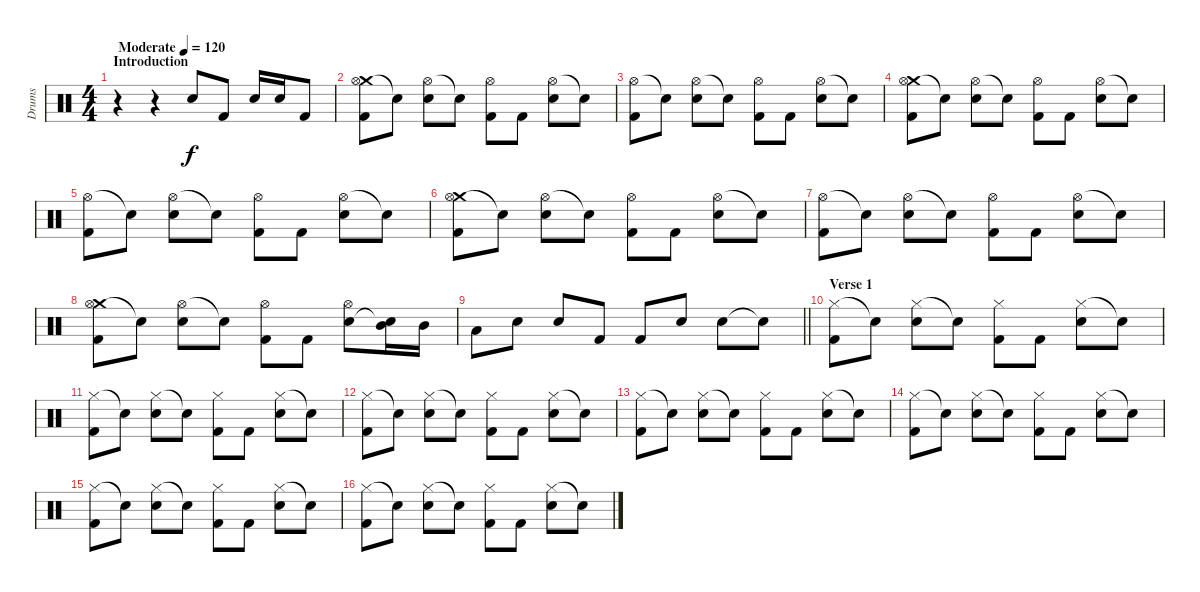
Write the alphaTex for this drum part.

\track ("Drums" "Drums") {instrument percussion}
\staff {score}
\articulation defaults
\ts (4 4)
\section ("" "Introduction")
\tempo (120 "Moderate")
\clef neutral
\ks c
r.4{dy f} r.4 "Electric Snare (hit)".8 "Kick (hit) 2".8 "Electric Snare (hit)".16 "Electric Snare (hit)".16 "Kick (hit) 2".8 |
("Crash medium (hit)" "Hi-Hat (open)" "Kick (hit) 2").8 "Snare (hit)"{t}.8 ("Hi-Hat (open)" "Electric Snare (hit)").8 "Snare (hit)"{t}.8 ("Hi-Hat (open)" "Kick (hit) 2").8 "Kick (hit) 2".8 ("Hi-Hat (open)" "Electric Snare (hit)").8 "Snare (hit)"{t}.8 |
("Hi-Hat (open)" "Kick (hit) 2").8 "Snare (hit)"{t}.8 ("Hi-Hat (open)" "Electric Snare (hit)").8 "Snare (hit)"{t}.8 ("Hi-Hat (open)" "Kick (hit) 2").8 "Kick (hit) 2".8 ("Hi-Hat (open)" "Electric Snare (hit)").8 "Snare (hit)"{t}.8 |
("Crash medium (hit)" "Hi-Hat (open)" "Kick (hit) 2").8 "Snare (hit)"{t}.8 ("Hi-Hat (open)" "Electric Snare (hit)").8 "Snare (hit)"{t}.8 ("Hi-Hat (open)" "Kick (hit) 2").8 "Kick (hit) 2".8 ("Hi-Hat (open)" "Electric Snare (hit)").8 "Snare (hit)"{t}.8 |
("Hi-Hat (open)" "Kick (hit) 2").8 "Snare (hit)"{t}.8 ("Hi-Hat (open)" "Electric Snare (hit)").8 "Snare (hit)"{t}.8 ("Hi-Hat (open)" "Kick (hit) 2").8 "Kick (hit) 2".8 ("Hi-Hat (open)" "Electric Snare (hit)").8 "Snare (hit)"{t}.8 |
("Crash medium (hit)" "Hi-Hat (open)" "Kick (hit) 2").8 "Snare (hit)"{t}.8 ("Hi-Hat (open)" "Electric Snare (hit)").8 "Snare (hit)"{t}.8 ("Hi-Hat (open)" "Kick (hit) 2").8 "Kick (hit) 2".8 ("Hi-Hat (open)" "Electric Snare (hit)").8 "Snare (hit)"{t}.8 |
("Hi-Hat (open)" "Kick (hit) 2").8 "Snare (hit)"{t}.8 ("Hi-Hat (open)" "Electric Snare (hit)").8 "Snare (hit)"{t}.8 ("Hi-Hat (open)" "Kick (hit) 2").8 "Kick (hit) 2".8 ("Hi-Hat (open)" "Electric Snare (hit)").8 "Snare (hit)"{t}.8 |
("Crash medium (hit)" "Hi-Hat (open)" "Kick (hit) 2").8 "Snare (hit)"{t}.8 ("Hi-Hat (open)" "Electric Snare (hit)").8 "Snare (hit)"{t}.8 ("Hi-Hat (open)" "Kick (hit) 2").8 "Kick (hit) 2".8 ("Hi-Hat (open)" "Electric Snare (hit)").8 ("Mid Tom (hit)" "Snare (hit)"{t}).16 "Mid Tom (hit)".16 |
\barLineRight lightlight "Low Tom (hit)".8 "Electric Snare (hit)".8 "Electric Snare (hit)".8 "Kick (hit) 2".8 "Kick (hit) 2".8 "Electric Snare (hit)".8 "Electric Snare (hit)".8 "Snare (hit)"{t}.8
|
\section ("" "Verse 1")
("Hi-Hat (closed)" "Kick (hit) 2").8 "Snare (hit)"{t}.8 ("Hi-Hat (closed)" "Electric Snare (hit)").8 "Snare (hit)"{t}.8 ("Hi-Hat (closed)" "Kick (hit) 2").8 "Kick (hit) 2".8 ("Hi-Hat (closed)" "Electric Snare (hit)").8 "Snare (hit)"{t}.8 |
("Hi-Hat (closed)" "Kick (hit) 2").8 "Snare (hit)"{t}.8 ("Hi-Hat (closed)" "Electric Snare (hit)").8 "Snare (hit)"{t}.8 ("Hi-Hat (closed)" "Kick (hit) 2").8 "Kick (hit) 2".8 ("Hi-Hat (closed)" "Electric Snare (hit)").8 "Snare (hit)"{t}.8 |
("Hi-Hat (closed)" "Kick (hit) 2").8 "Snare (hit)"{t}.8 ("Hi-Hat (closed)" "Electric Snare (hit)").8 "Snare (hit)"{t}.8 ("Hi-Hat (closed)" "Kick (hit) 2").8 "Kick (hit) 2".8 ("Hi-Hat (closed)" "Electric Snare (hit)").8 "Snare (hit)"{t}.8 |
("Hi-Hat (closed)" "Kick (hit) 2").8 "Snare (hit)"{t}.8 ("Hi-Hat (closed)" "Electric Snare (hit)").8 "Snare (hit)"{t}.8 ("Hi-Hat (closed)" "Kick (hit) 2").8 "Kick (hit) 2".8 ("Hi-Hat (closed)" "Electric Snare (hit)").8 "Snare (hit)"{t}.8 |
("Hi-Hat (closed)" "Kick (hit) 2").8 "Snare (hit)"{t}.8 ("Hi-Hat (closed)" "Electric Snare (hit)").8 "Snare (hit)"{t}.8 ("Hi-Hat (closed)" "Kick (hit) 2").8 "Kick (hit) 2".8 ("Hi-Hat (closed)" "Electric Snare (hit)").8 "Snare (hit)"{t}.8 |
("Hi-Hat (closed)" "Kick (hit) 2").8 "Snare (hit)"{t}.8 ("Hi-Hat (closed)" "Electric Snare (hit)").8 "Snare (hit)"{t}.8 ("Hi-Hat (closed)" "Kick (hit) 2").8 "Kick (hit) 2".8 ("Hi-Hat (closed)" "Electric Snare (hit)").8 "Snare (hit)"{t}.8 |
("Hi-Hat (closed)" "Kick (hit) 2").8 "Snare (hit)"{t}.8 ("Hi-Hat (closed)" "Electric Snare (hit)").8 "Snare (hit)"{t}.8 ("Hi-Hat (closed)" "Kick (hit) 2").8 "Kick (hit) 2".8 ("Hi-Hat (closed)" "Electric Snare (hit)").8 "Snare (hit)"{t}.8
